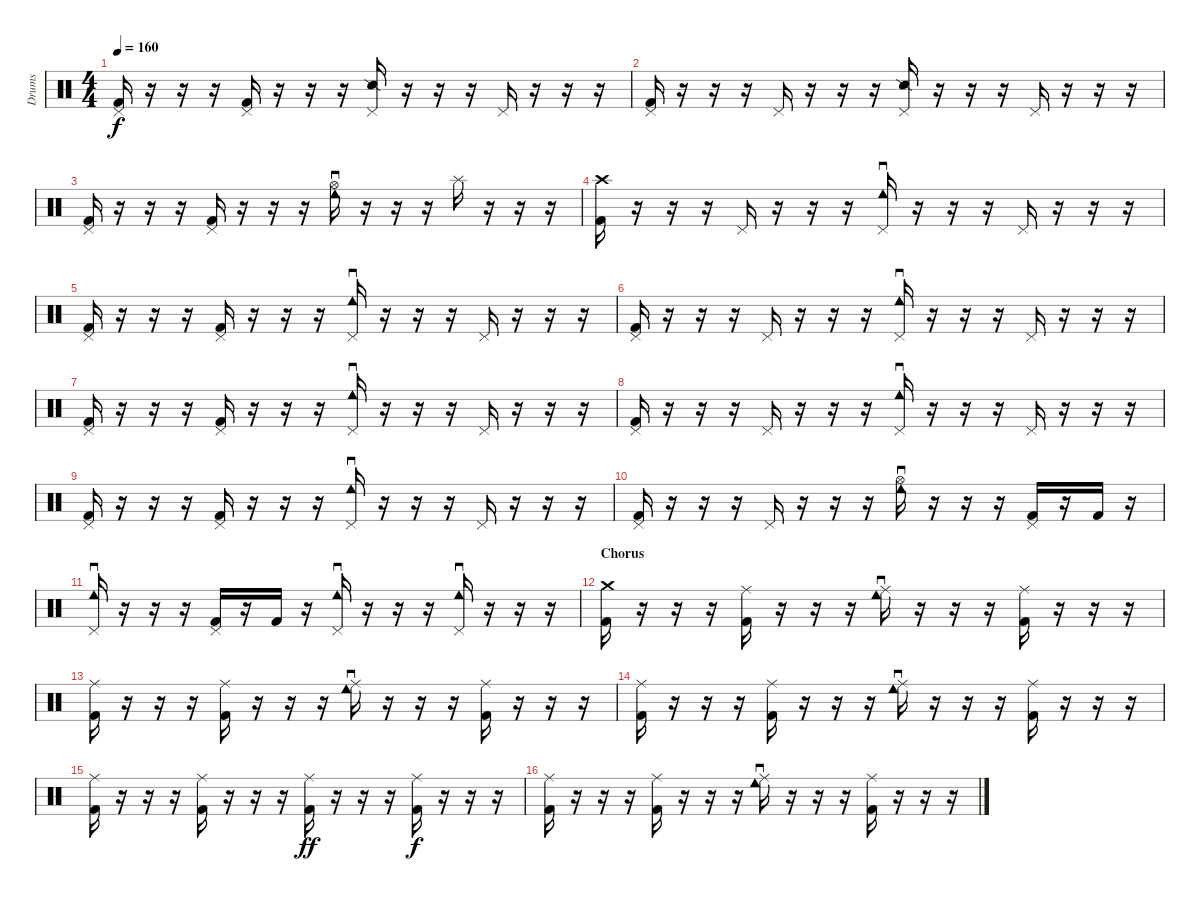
\track ("Drums" "Drums") {instrument percussion}
\staff {score}
\articulation defaults
\ts (4 4)
\tempo 160
\clef neutral
\ks c
("Pedal Hi-Hat (hit)" "Kick (hit) 2").16{dy f} r.16 r.16 r.16 ("Pedal Hi-Hat (hit)" "Kick (hit) 2").16 r.16 r.16 r.16 ("Pedal Hi-Hat (hit)" "Snare (side stick) 2").16 r.16 r.16 r.16 "Pedal Hi-Hat (hit)".16 r.16 r.16 r.16 |
("Pedal Hi-Hat (hit)" "Kick (hit) 2").16 r.16 r.16 r.16 "Pedal Hi-Hat (hit)".16 r.16 r.16 r.16 ("Pedal Hi-Hat (hit)" "Snare (side stick) 2").16 r.16 r.16 r.16 "Pedal Hi-Hat (hit)".16 r.16 r.16 r.16 |
("Pedal Hi-Hat (hit)" "Kick (hit) 2").16 r.16 r.16 r.16 ("Pedal Hi-Hat (hit)" "Kick (hit) 2").16 r.16 r.16 r.16 ("Hi-Hat (open)" "Tambourine (roll)").16 r.16 r.16 r.16 "Splash (hit)".16 r.16 r.16 r.16 |
("Crash high (hit)" "Kick (hit) 2").16 r.16 r.16 r.16 "Pedal Hi-Hat (hit)".16 r.16 r.16 r.16 ("Pedal Hi-Hat (hit)" "Tambourine (roll)").16 r.16 r.16 r.16 "Pedal Hi-Hat (hit)".16 r.16 r.16 r.16 |
("Pedal Hi-Hat (hit)" "Kick (hit) 2").16 r.16 r.16 r.16 ("Pedal Hi-Hat (hit)" "Kick (hit) 2").16 r.16 r.16 r.16 ("Pedal Hi-Hat (hit)" "Tambourine (roll)").16 r.16 r.16 r.16 "Pedal Hi-Hat (hit)".16 r.16 r.16 r.16 |
("Pedal Hi-Hat (hit)" "Kick (hit) 2").16 r.16 r.16 r.16 "Pedal Hi-Hat (hit)".16 r.16 r.16 r.16 ("Pedal Hi-Hat (hit)" "Tambourine (roll)").16 r.16 r.16 r.16 "Pedal Hi-Hat (hit)".16 r.16 r.16 r.16 |
("Pedal Hi-Hat (hit)" "Kick (hit) 2").16 r.16 r.16 r.16 ("Pedal Hi-Hat (hit)" "Kick (hit) 2").16 r.16 r.16 r.16 ("Pedal Hi-Hat (hit)" "Tambourine (roll)").16 r.16 r.16 r.16 "Pedal Hi-Hat (hit)".16 r.16 r.16 r.16 |
("Pedal Hi-Hat (hit)" "Kick (hit) 2").16 r.16 r.16 r.16 "Pedal Hi-Hat (hit)".16 r.16 r.16 r.16 ("Pedal Hi-Hat (hit)" "Tambourine (roll)").16 r.16 r.16 r.16 "Pedal Hi-Hat (hit)".16 r.16 r.16 r.16 |
("Pedal Hi-Hat (hit)" "Kick (hit) 2").16 r.16 r.16 r.16 ("Pedal Hi-Hat (hit)" "Kick (hit) 2").16 r.16 r.16 r.16 ("Pedal Hi-Hat (hit)" "Tambourine (roll)").16 r.16 r.16 r.16 "Pedal Hi-Hat (hit)".16 r.16 r.16 r.16 |
("Pedal Hi-Hat (hit)" "Kick (hit) 2").16 r.16 r.16 r.16 "Pedal Hi-Hat (hit)".16 r.16 r.16 r.16 ("Hi-Hat (open)" "Tambourine (roll)").16 r.16 r.16 r.16 ("Pedal Hi-Hat (hit)" "Kick (hit) 2").16 r.16 "Kick (hit) 2".16 r.16 |
("Pedal Hi-Hat (hit)" "Tambourine (roll)").16 r.16 r.16 r.16 ("Pedal Hi-Hat (hit)" "Kick (hit) 2").16 r.16 "Kick (hit) 2".16 r.16 ("Pedal Hi-Hat (hit)" "Tambourine (roll)").16 r.16 r.16 r.16 ("Pedal Hi-Hat (hit)" "Tambourine (roll)").16 r.16 r.16 r.16 |
\section ("" "Chorus")
("Crash medium (hit)" "Kick (hit) 2").16 r.16 r.16 r.16 ("Ride (middle)" "Kick (hit) 2").16 r.16 r.16 r.16 ("Ride (middle)" "Tambourine (roll)").16 r.16 r.16 r.16 ("Ride (middle)" "Kick (hit) 2").16 r.16 r.16 r.16 |
("Ride (middle)" "Kick (hit) 2").16 r.16 r.16 r.16 ("Ride (middle)" "Kick (hit) 2").16 r.16 r.16 r.16 ("Ride (middle)" "Tambourine (roll)").16 r.16 r.16 r.16 ("Ride (middle)" "Kick (hit) 2").16 r.16 r.16 r.16 |
("Ride (middle)" "Kick (hit) 2").16 r.16 r.16 r.16 ("Ride (middle)" "Kick (hit) 2").16 r.16 r.16 r.16 ("Ride (middle)" "Tambourine (roll)").16 r.16 r.16 r.16 ("Ride (middle)" "Kick (hit) 2").16 r.16 r.16 r.16 |
("Ride (middle)" "Kick (hit) 2").16 r.16 r.16 r.16 ("Ride (middle)" "Kick (hit) 2").16 r.16 r.16 r.16 ("Ride (middle)" "Kick (hit) 2").16{dy ff} r.16 r.16 r.16 ("Ride (middle)" "Kick (hit) 2").16{dy f} r.16 r.16 r.16 |
("Ride (middle)" "Kick (hit) 2").16 r.16 r.16 r.16 ("Ride (middle)" "Kick (hit) 2").16 r.16 r.16 r.16 ("Ride (middle)" "Tambourine (roll)").16 r.16 r.16 r.16 ("Ride (middle)" "Kick (hit) 2").16 r.16 r.16 r.16
